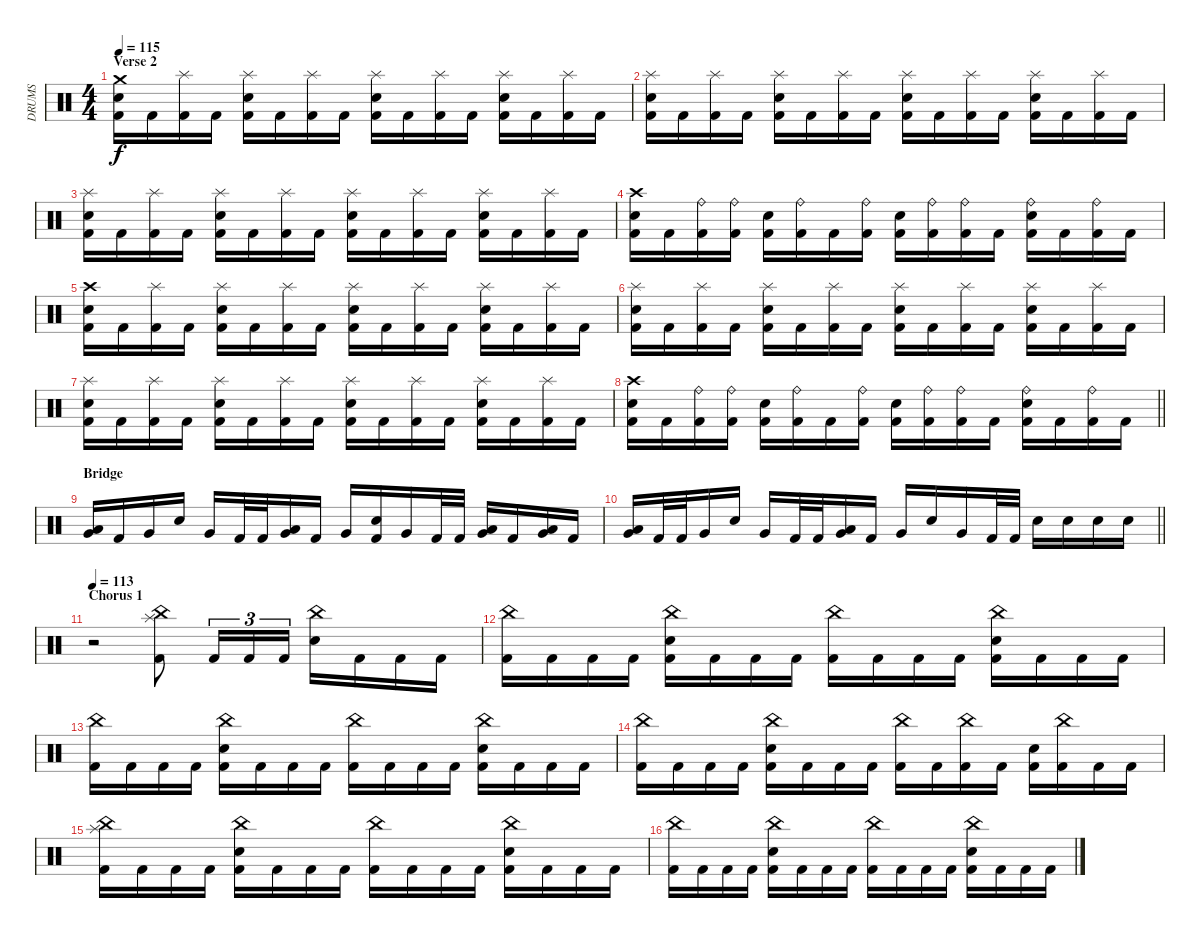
\track ("DRUMS" "DRUMS") {instrument percussion}
\staff {score}
\articulation defaults
\ts (4 4)
\section ("" "Verse 2")
\tempo 115
\clef neutral
\ks c
("Crash medium (hit)" "Electric Snare (hit)" "Kick (hit) 2").16{dy f} "Kick (hit) 2".16 ("Splash (hit)" "Kick (hit) 2").16 "Kick (hit) 2".16 ("Splash (hit)" "Electric Snare (hit)" "Kick (hit) 2").16 "Kick (hit) 2".16 ("Splash (hit)" "Kick (hit) 2").16 "Kick (hit) 2".16 ("Splash (hit)" "Electric Snare (hit)" "Kick (hit) 2").16 "Kick (hit) 2".16 ("Splash (hit)" "Kick (hit) 2").16 "Kick (hit) 2".16 ("Splash (hit)" "Electric Snare (hit)" "Kick (hit) 2").16 "Kick (hit) 2".16 ("Splash (hit)" "Kick (hit) 2").16 "Kick (hit) 2".16 |
("Splash (hit)" "Electric Snare (hit)" "Kick (hit) 2").16 "Kick (hit) 2".16 ("Splash (hit)" "Kick (hit) 2").16 "Kick (hit) 2".16 ("Splash (hit)" "Electric Snare (hit)" "Kick (hit) 2").16 "Kick (hit) 2".16 ("Splash (hit)" "Kick (hit) 2").16 "Kick (hit) 2".16 ("Splash (hit)" "Electric Snare (hit)" "Kick (hit) 2").16 "Kick (hit) 2".16 ("Splash (hit)" "Kick (hit) 2").16 "Kick (hit) 2".16 ("Splash (hit)" "Electric Snare (hit)" "Kick (hit) 2").16 "Kick (hit) 2".16 ("Splash (hit)" "Kick (hit) 2").16 "Kick (hit) 2".16 |
("Splash (hit)" "Electric Snare (hit)" "Kick (hit) 2").16 "Kick (hit) 2".16 ("Splash (hit)" "Kick (hit) 2").16 "Kick (hit) 2".16 ("Splash (hit)" "Electric Snare (hit)" "Kick (hit) 2").16 "Kick (hit) 2".16 ("Splash (hit)" "Kick (hit) 2").16 "Kick (hit) 2".16 ("Splash (hit)" "Electric Snare (hit)" "Kick (hit) 2").16 "Kick (hit) 2".16 ("Splash (hit)" "Kick (hit) 2").16 "Kick (hit) 2".16 ("Splash (hit)" "Electric Snare (hit)" "Kick (hit) 2").16 "Kick (hit) 2".16 ("Splash (hit)" "Kick (hit) 2").16 "Kick (hit) 2".16 |
("Crash high (hit)" "Electric Snare (hit)" "Kick (hit) 2").16 "Kick (hit) 2".16 ("Ride (bell)" "Kick (hit) 2").16 ("Ride (bell)" "Kick (hit) 2").16 ("Electric Snare (hit)" "Kick (hit) 2").16 ("Ride (bell)" "Kick (hit) 2").16 "Kick (hit) 2".16 ("Ride (bell)" "Kick (hit) 2").16 ("Electric Snare (hit)" "Kick (hit) 2").16 ("Ride (bell)" "Kick (hit) 2").16 ("Ride (bell)" "Kick (hit) 2").16 "Kick (hit) 2".16 ("Ride (bell)" "Electric Snare (hit)" "Kick (hit) 2").16 "Kick (hit) 2".16 ("Ride (bell)" "Kick (hit) 2").16 "Kick (hit) 2".16 |
("Crash high (hit)" "Electric Snare (hit)" "Kick (hit) 2").16 "Kick (hit) 2".16 ("Splash (hit)" "Kick (hit) 2").16 "Kick (hit) 2".16 ("Splash (hit)" "Electric Snare (hit)" "Kick (hit) 2").16 "Kick (hit) 2".16 ("Splash (hit)" "Kick (hit) 2").16 "Kick (hit) 2".16 ("Splash (hit)" "Electric Snare (hit)" "Kick (hit) 2").16 "Kick (hit) 2".16 ("Splash (hit)" "Kick (hit) 2").16 "Kick (hit) 2".16 ("Splash (hit)" "Electric Snare (hit)" "Kick (hit) 2").16 "Kick (hit) 2".16 ("Splash (hit)" "Kick (hit) 2").16 "Kick (hit) 2".16 |
("Splash (hit)" "Electric Snare (hit)" "Kick (hit) 2").16 "Kick (hit) 2".16 ("Splash (hit)" "Kick (hit) 2").16 "Kick (hit) 2".16 ("Splash (hit)" "Electric Snare (hit)" "Kick (hit) 2").16 "Kick (hit) 2".16 ("Splash (hit)" "Kick (hit) 2").16 "Kick (hit) 2".16 ("Splash (hit)" "Electric Snare (hit)" "Kick (hit) 2").16 "Kick (hit) 2".16 ("Splash (hit)" "Kick (hit) 2").16 "Kick (hit) 2".16 ("Splash (hit)" "Electric Snare (hit)" "Kick (hit) 2").16 "Kick (hit) 2".16 ("Splash (hit)" "Kick (hit) 2").16 "Kick (hit) 2".16 |
("Splash (hit)" "Electric Snare (hit)" "Kick (hit) 2").16 "Kick (hit) 2".16 ("Splash (hit)" "Kick (hit) 2").16 "Kick (hit) 2".16 ("Splash (hit)" "Electric Snare (hit)" "Kick (hit) 2").16 "Kick (hit) 2".16 ("Splash (hit)" "Kick (hit) 2").16 "Kick (hit) 2".16 ("Splash (hit)" "Electric Snare (hit)" "Kick (hit) 2").16 "Kick (hit) 2".16 ("Splash (hit)" "Kick (hit) 2").16 "Kick (hit) 2".16 ("Splash (hit)" "Electric Snare (hit)" "Kick (hit) 2").16 "Kick (hit) 2".16 ("Splash (hit)" "Kick (hit) 2").16 "Kick (hit) 2".16 |
\barLineRight lightlight
("Crash high (hit)" "Electric Snare (hit)" "Kick (hit) 2").16 "Kick (hit) 2".16 ("Ride (bell)" "Kick (hit) 2").16 ("Ride (bell)" "Kick (hit) 2").16 ("Electric Snare (hit)" "Kick (hit) 2").16 ("Ride (bell)" "Kick (hit) 2").16 "Kick (hit) 2".16 ("Ride (bell)" "Kick (hit) 2").16 ("Electric Snare (hit)" "Kick (hit) 2").16 ("Ride (bell)" "Kick (hit) 2").16 ("Ride (bell)" "Kick (hit) 2").16 "Kick (hit) 2".16 ("Ride (bell)" "Electric Snare (hit)" "Kick (hit) 2").16 "Kick (hit) 2".16 ("Ride (bell)" "Kick (hit) 2").16 "Kick (hit) 2".16 |
\section ("" "Bridge")
("Low Tom (hit)" "Very Low Tom (hit)").16 "Kick (hit) 2".16 "Very Low Tom (hit)".16 "Electric Snare (hit)".16 "Very Low Tom (hit)".16 "Kick (hit) 2".32 "Kick (hit) 2".32 ("Low Tom (hit)" "Very Low Tom (hit)").16 "Kick (hit) 2".16 "Very Low Tom (hit)".16 ("Electric Snare (hit)" "Kick (hit) 2").16 "Very Low Tom (hit)".16 "Kick (hit) 2".32 "Kick (hit) 2".32 ("Low Tom (hit)" "Very Low Tom (hit)").16 "Kick (hit) 2".16 ("Low Tom (hit)" "Very Low Tom (hit)").16 "Kick (hit) 2".16 |
\barLineRight lightlight
("Low Tom (hit)" "Very Low Tom (hit)").16 "Kick (hit) 2".32 "Kick (hit) 2".32 "Very Low Tom (hit)".16 "Electric Snare (hit)".16 "Very Low Tom (hit)".16 "Kick (hit) 2".32 "Kick (hit) 2".32 ("Low Tom (hit)" "Very Low Tom (hit)").16 "Kick (hit) 2".16 "Very Low Tom (hit)".16 "Electric Snare (hit)".16 "Very Low Tom (hit)".16 "Kick (hit) 2".32 "Kick (hit) 2".32 "Electric Snare (hit)".16 "Electric Snare (hit)".16 "Electric Snare (hit)".16 "Electric Snare (hit)".16 |
\section ("" "Chorus 1")
\tempo 113
r.2 ("China (hit)" "Splash (hit)" "Kick (hit) 2").8 "Kick (hit) 2".16{tu (3 2)} "Kick (hit) 2".16{tu (3 2)} "Kick (hit) 2".16{tu (3 2)} ("China (hit)" "Electric Snare (hit)").16 "Kick (hit) 2".16 "Kick (hit) 2".16 "Kick (hit) 2".16 |
("China (hit)" "Kick (hit) 2").16 "Kick (hit) 2".16 "Kick (hit) 2".16 "Kick (hit) 2".16 ("China (hit)" "Electric Snare (hit)" "Kick (hit) 2").16 "Kick (hit) 2".16 "Kick (hit) 2".16 "Kick (hit) 2".16 ("China (hit)" "Kick (hit) 2").16 "Kick (hit) 2".16 "Kick (hit) 2".16 "Kick (hit) 2".16 ("China (hit)" "Electric Snare (hit)" "Kick (hit) 2").16 "Kick (hit) 2".16 "Kick (hit) 2".16 "Kick (hit) 2".16 |
("China (hit)" "Kick (hit) 2").16 "Kick (hit) 2".16 "Kick (hit) 2".16 "Kick (hit) 2".16 ("China (hit)" "Electric Snare (hit)" "Kick (hit) 2").16 "Kick (hit) 2".16 "Kick (hit) 2".16 "Kick (hit) 2".16 ("China (hit)" "Kick (hit) 2").16 "Kick (hit) 2".16 "Kick (hit) 2".16 "Kick (hit) 2".16 ("China (hit)" "Electric Snare (hit)" "Kick (hit) 2").16 "Kick (hit) 2".16 "Kick (hit) 2".16 "Kick (hit) 2".16 |
("China (hit)" "Kick (hit) 2").16 "Kick (hit) 2".16 "Kick (hit) 2".16 "Kick (hit) 2".16 ("China (hit)" "Electric Snare (hit)" "Kick (hit) 2").16 "Kick (hit) 2".16 "Kick (hit) 2".16 "Kick (hit) 2".16 ("China (hit)" "Kick (hit) 2").16 "Kick (hit) 2".16 ("China (hit)" "Kick (hit) 2").16 "Kick (hit) 2".16 ("Electric Snare (hit)" "Kick (hit) 2").16 ("China (hit)" "Kick (hit) 2").16 "Kick (hit) 2".16 "Kick (hit) 2".16 |
("China (hit)" "Splash (hit)" "Kick (hit) 2").16 "Kick (hit) 2".16 "Kick (hit) 2".16 "Kick (hit) 2".16 ("China (hit)" "Electric Snare (hit)" "Kick (hit) 2").16 "Kick (hit) 2".16 "Kick (hit) 2".16 "Kick (hit) 2".16 ("China (hit)" "Kick (hit) 2").16 "Kick (hit) 2".16 "Kick (hit) 2".16 "Kick (hit) 2".16 ("China (hit)" "Electric Snare (hit)" "Kick (hit) 2").16 "Kick (hit) 2".16 "Kick (hit) 2".16 "Kick (hit) 2".16 |
("China (hit)" "Kick (hit) 2").16 "Kick (hit) 2".16 "Kick (hit) 2".16 "Kick (hit) 2".16 ("China (hit)" "Electric Snare (hit)" "Kick (hit) 2").16 "Kick (hit) 2".16 "Kick (hit) 2".16 "Kick (hit) 2".16 ("China (hit)" "Kick (hit) 2").16 "Kick (hit) 2".16 "Kick (hit) 2".16 "Kick (hit) 2".16 ("China (hit)" "Electric Snare (hit)" "Kick (hit) 2").16 "Kick (hit) 2".16 "Kick (hit) 2".16 "Kick (hit) 2".16
